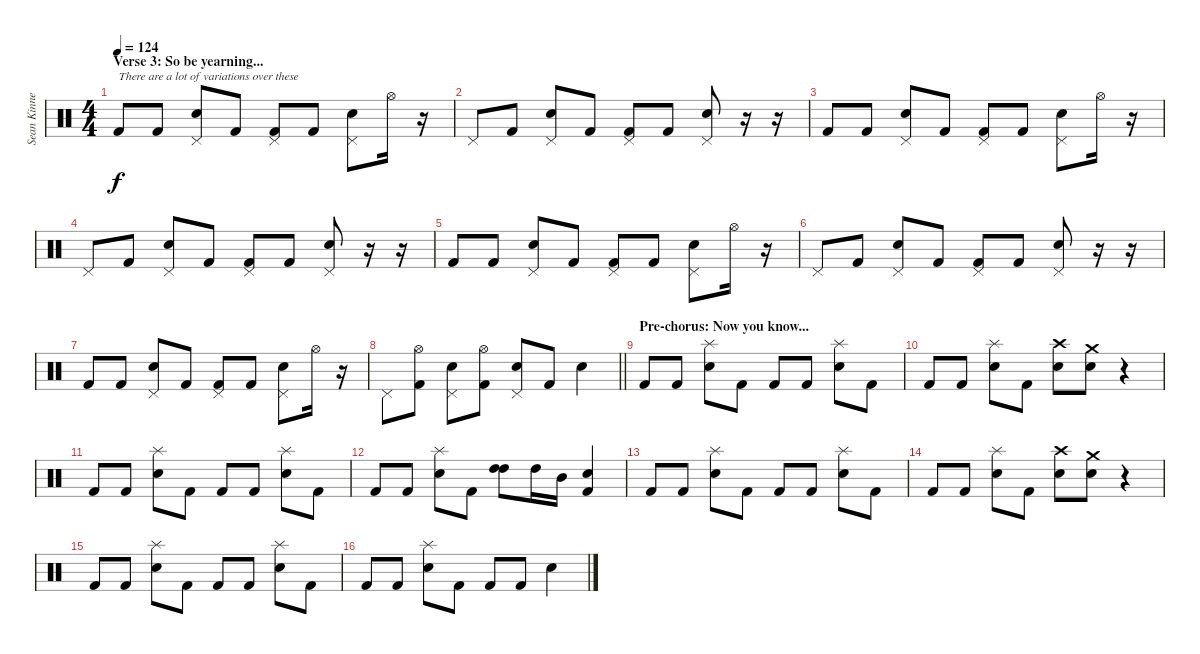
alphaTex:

\track ("Sean Kinney" "Sean Kinne") {instrument percussion}
\staff {score}
\articulation defaults
\ts (4 4)
\section ("" "Verse 3: So be yearning...")
\tempo 124
\clef neutral
\ks c "Kick (hit) 2".8{txt "There are a lot of variations over these " dy f} "Kick (hit) 2".8
("Pedal Hi-Hat (hit)" "Snare (hit) 2").8 "Kick (hit) 2".8 ("Pedal Hi-Hat (hit)" "Kick (hit) 2").8 "Kick (hit) 2".8 ("Pedal Hi-Hat (hit)" "Snare (hit) 2").8 "Hi-Hat (open)".16 r.16 |
"Pedal Hi-Hat (hit)".8 "Kick (hit) 2".8 ("Pedal Hi-Hat (hit)" "Snare (hit) 2").8 "Kick (hit) 2".8 ("Pedal Hi-Hat (hit)" "Kick (hit) 2").8 "Kick (hit) 2".8 ("Pedal Hi-Hat (hit)" "Snare (hit) 2").8 r.16 r.16 |
"Kick (hit) 2".8 "Kick (hit) 2".8 ("Pedal Hi-Hat (hit)" "Snare (hit) 2").8 "Kick (hit) 2".8 ("Pedal Hi-Hat (hit)" "Kick (hit) 2").8 "Kick (hit) 2".8 ("Pedal Hi-Hat (hit)" "Snare (hit) 2").8 "Hi-Hat (open)".16 r.16 |
"Pedal Hi-Hat (hit)".8 "Kick (hit) 2".8 ("Pedal Hi-Hat (hit)" "Snare (hit) 2").8 "Kick (hit) 2".8 ("Pedal Hi-Hat (hit)" "Kick (hit) 2").8 "Kick (hit) 2".8 ("Pedal Hi-Hat (hit)" "Snare (hit) 2").8 r.16 r.16 |
"Kick (hit) 2".8 "Kick (hit) 2".8 ("Pedal Hi-Hat (hit)" "Snare (hit) 2").8 "Kick (hit) 2".8 ("Pedal Hi-Hat (hit)" "Kick (hit) 2").8 "Kick (hit) 2".8 ("Pedal Hi-Hat (hit)" "Snare (hit) 2").8 "Hi-Hat (open)".16 r.16 |
"Pedal Hi-Hat (hit)".8 "Kick (hit) 2".8 ("Pedal Hi-Hat (hit)" "Snare (hit) 2").8 "Kick (hit) 2".8 ("Pedal Hi-Hat (hit)" "Kick (hit) 2").8 "Kick (hit) 2".8 ("Pedal Hi-Hat (hit)" "Snare (hit) 2").8 r.16 r.16 |
"Kick (hit) 2".8 "Kick (hit) 2".8 ("Pedal Hi-Hat (hit)" "Snare (hit) 2").8 "Kick (hit) 2".8 ("Pedal Hi-Hat (hit)" "Kick (hit) 2").8 "Kick (hit) 2".8 ("Pedal Hi-Hat (hit)" "Snare (hit) 2").8 "Hi-Hat (open)".16 r.16 |
\barLineRight lightlight "Pedal Hi-Hat (hit)".8
("Hi-Hat (open)" "Kick (hit) 2").8 ("Pedal Hi-Hat (hit)" "Snare (hit) 2").8 ("Hi-Hat (open)" "Kick (hit) 2").8 ("Pedal Hi-Hat (hit)" "Snare (hit) 2").8 "Kick (hit) 2".8 "Snare (hit) 2".4 |
\section ("" "Pre-chorus: Now you know...")
"Kick (hit) 2".8 "Kick (hit) 2".8 ("Splash (hit)" "Snare (hit) 2").8 "Kick (hit) 2".8 "Kick (hit) 2".8 "Kick (hit) 2".8 ("Splash (hit)" "Snare (hit) 2").8 "Kick (hit) 2".8 |
"Kick (hit) 2".8 "Kick (hit) 2".8 ("Splash (hit)" "Snare (hit) 2").8 "Kick (hit) 2".8 ("Crash high (hit)" "Snare (hit) 2").8 ("Crash medium (hit)" "Snare (hit) 2").8 r.4 |
"Kick (hit) 2".8 "Kick (hit) 2".8 ("Splash (hit)" "Snare (hit) 2").8 "Kick (hit) 2".8 "Kick (hit) 2".8 "Kick (hit) 2".8 ("Splash (hit)" "Snare (hit) 2").8 "Kick (hit) 2".8 |
"Kick (hit) 2".8 "Kick (hit) 2".8 ("Splash (hit)" "Snare (hit) 2").8 "Kick (hit) 2".8 ("High Tom (hit)" "High Tom (hit)").8 "High Tom (hit)".16 "Mid Tom (hit)".16 ("Snare (hit) 2" "Kick (hit) 2").4 |
"Kick (hit) 2".8 "Kick (hit) 2".8 ("Splash (hit)" "Snare (hit) 2").8 "Kick (hit) 2".8 "Kick (hit) 2".8 "Kick (hit) 2".8 ("Splash (hit)" "Snare (hit) 2").8 "Kick (hit) 2".8 |
"Kick (hit) 2".8 "Kick (hit) 2".8 ("Splash (hit)" "Snare (hit) 2").8 "Kick (hit) 2".8 ("Crash high (hit)" "Snare (hit) 2").8 ("Crash medium (hit)" "Snare (hit) 2").8 r.4 |
"Kick (hit) 2".8 "Kick (hit) 2".8 ("Splash (hit)" "Snare (hit) 2").8 "Kick (hit) 2".8 "Kick (hit) 2".8 "Kick (hit) 2".8 ("Splash (hit)" "Snare (hit) 2").8 "Kick (hit) 2".8 |
"Kick (hit) 2".8 "Kick (hit) 2".8 ("Splash (hit)" "Snare (hit) 2").8 "Kick (hit) 2".8 "Kick (hit) 2".8 "Kick (hit) 2".8 "Snare (hit) 2".4
